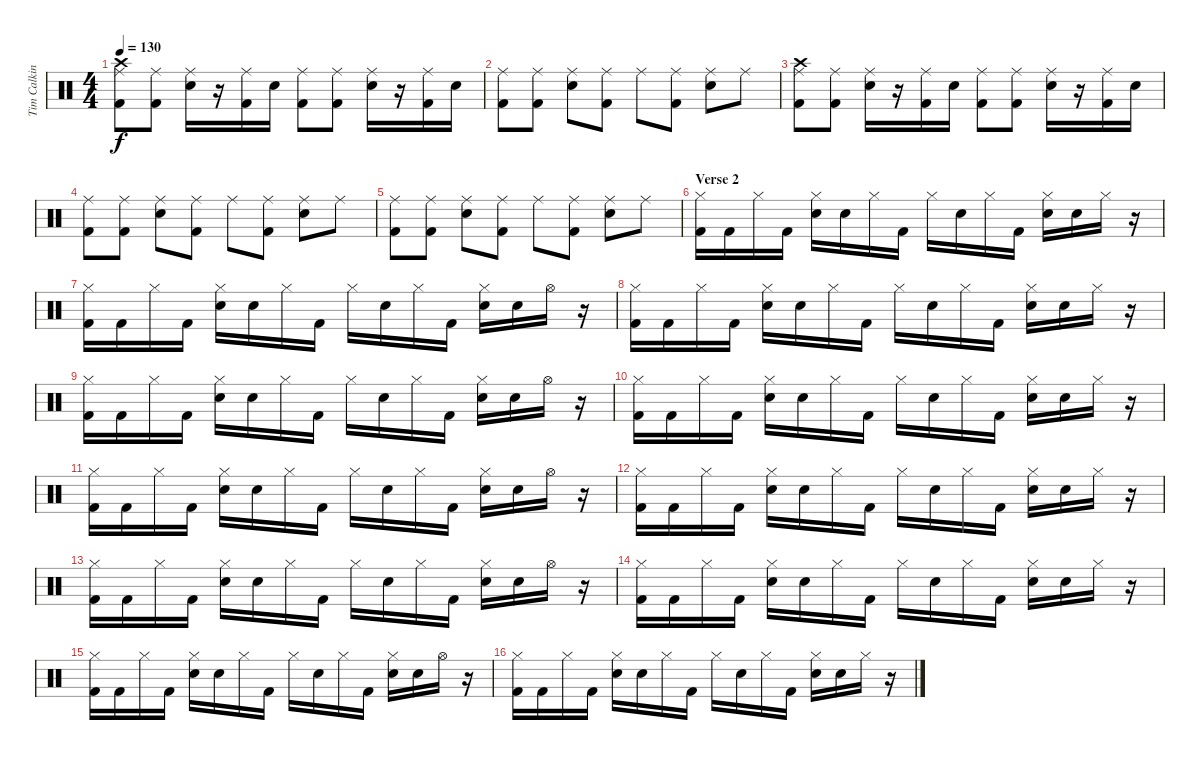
\track ("Tim Calkin" "Tim Calkin") {instrument percussion}
\staff {score}
\articulation defaults
\ts (4 4)
\tempo 130
\clef neutral
\ks c
("Ride (middle)" "Crash high (hit)" "Kick (hit) 2").8{dy f} ("Ride (middle)" "Kick (hit) 2").8 ("Ride (middle)" "Snare (hit) 2").16 r.16 ("Ride (middle)" "Kick (hit) 2").16 "Snare (hit) 2".16 ("Ride (middle)" "Kick (hit) 2").8 ("Ride (middle)" "Kick (hit) 2").8 ("Ride (middle)" "Snare (hit) 2").16 r.16 ("Ride (middle)" "Kick (hit) 2").16 "Snare (hit) 2".16 |
("Ride (middle)" "Kick (hit) 2").8 ("Ride (middle)" "Kick (hit) 2").8 ("Ride (middle)" "Snare (hit) 2").8 ("Ride (middle)" "Kick (hit) 2").8 "Ride (middle)".8 ("Ride (middle)" "Kick (hit) 2").8 ("Ride (middle)" "Snare (hit) 2").8 "Ride (middle)".8 |
("Ride (middle)" "Crash high (hit)" "Kick (hit) 2").8 ("Ride (middle)" "Kick (hit) 2").8 ("Ride (middle)" "Snare (hit) 2").16 r.16 ("Ride (middle)" "Kick (hit) 2").16 "Snare (hit) 2".16 ("Ride (middle)" "Kick (hit) 2").8 ("Ride (middle)" "Kick (hit) 2").8 ("Ride (middle)" "Snare (hit) 2").16 r.16 ("Ride (middle)" "Kick (hit) 2").16 "Snare (hit) 2".16 |
("Ride (middle)" "Kick (hit) 2").8 ("Ride (middle)" "Kick (hit) 2").8 ("Ride (middle)" "Snare (hit) 2").8 ("Ride (middle)" "Kick (hit) 2").8 "Ride (middle)".8 ("Ride (middle)" "Kick (hit) 2").8 ("Ride (middle)" "Snare (hit) 2").8 "Ride (middle)".8 |
("Ride (middle)" "Kick (hit) 2").8 ("Ride (middle)" "Kick (hit) 2").8 ("Ride (middle)" "Snare (hit) 2").8 ("Ride (middle)" "Kick (hit) 2").8 "Ride (middle)".8 ("Ride (middle)" "Kick (hit) 2").8 ("Ride (middle)" "Snare (hit) 2").8 "Ride (middle)".8 |
\section ("" "Verse 2")
("Hi-Hat (closed)" "Kick (hit) 2").16 "Kick (hit) 2".16 "Hi-Hat (closed)".16 "Kick (hit) 2".16 ("Hi-Hat (closed)" "Snare (hit) 2").16 "Snare (hit) 2".16 "Hi-Hat (closed)".16 "Kick (hit) 2".16 "Hi-Hat (closed)".16 "Snare (hit) 2".16 "Hi-Hat (closed)".16 "Kick (hit) 2".16 ("Hi-Hat (closed)" "Snare (hit) 2").16 "Snare (hit) 2".16 "Hi-Hat (closed)".16 r.16 |
("Hi-Hat (closed)" "Kick (hit) 2").16 "Kick (hit) 2".16 "Hi-Hat (closed)".16 "Kick (hit) 2".16 ("Hi-Hat (closed)" "Snare (hit) 2").16 "Snare (hit) 2".16 "Hi-Hat (closed)".16 "Kick (hit) 2".16 "Hi-Hat (closed)".16 "Snare (hit) 2".16 "Hi-Hat (closed)".16 "Kick (hit) 2".16 ("Hi-Hat (closed)" "Snare (hit) 2").16 "Snare (hit) 2".16 "Hi-Hat (open)".16 r.16 |
("Hi-Hat (closed)" "Kick (hit) 2").16 "Kick (hit) 2".16 "Hi-Hat (closed)".16 "Kick (hit) 2".16 ("Hi-Hat (closed)" "Snare (hit) 2").16 "Snare (hit) 2".16 "Hi-Hat (closed)".16 "Kick (hit) 2".16 "Hi-Hat (closed)".16 "Snare (hit) 2".16 "Hi-Hat (closed)".16 "Kick (hit) 2".16 ("Hi-Hat (closed)" "Snare (hit) 2").16 "Snare (hit) 2".16 "Hi-Hat (closed)".16 r.16 |
("Hi-Hat (closed)" "Kick (hit) 2").16 "Kick (hit) 2".16 "Hi-Hat (closed)".16 "Kick (hit) 2".16 ("Hi-Hat (closed)" "Snare (hit) 2").16 "Snare (hit) 2".16 "Hi-Hat (closed)".16 "Kick (hit) 2".16 "Hi-Hat (closed)".16 "Snare (hit) 2".16 "Hi-Hat (closed)".16 "Kick (hit) 2".16 ("Hi-Hat (closed)" "Snare (hit) 2").16 "Snare (hit) 2".16 "Hi-Hat (open)".16 r.16 |
("Hi-Hat (closed)" "Kick (hit) 2").16 "Kick (hit) 2".16 "Hi-Hat (closed)".16 "Kick (hit) 2".16 ("Hi-Hat (closed)" "Snare (hit) 2").16 "Snare (hit) 2".16 "Hi-Hat (closed)".16 "Kick (hit) 2".16 "Hi-Hat (closed)".16 "Snare (hit) 2".16 "Hi-Hat (closed)".16 "Kick (hit) 2".16 ("Hi-Hat (closed)" "Snare (hit) 2").16 "Snare (hit) 2".16 "Hi-Hat (closed)".16 r.16 |
("Hi-Hat (closed)" "Kick (hit) 2").16 "Kick (hit) 2".16 "Hi-Hat (closed)".16 "Kick (hit) 2".16 ("Hi-Hat (closed)" "Snare (hit) 2").16 "Snare (hit) 2".16 "Hi-Hat (closed)".16 "Kick (hit) 2".16 "Hi-Hat (closed)".16 "Snare (hit) 2".16 "Hi-Hat (closed)".16 "Kick (hit) 2".16 ("Hi-Hat (closed)" "Snare (hit) 2").16 "Snare (hit) 2".16 "Hi-Hat (open)".16 r.16 |
("Hi-Hat (closed)" "Kick (hit) 2").16 "Kick (hit) 2".16 "Hi-Hat (closed)".16 "Kick (hit) 2".16 ("Hi-Hat (closed)" "Snare (hit) 2").16 "Snare (hit) 2".16 "Hi-Hat (closed)".16 "Kick (hit) 2".16 "Hi-Hat (closed)".16 "Snare (hit) 2".16 "Hi-Hat (closed)".16 "Kick (hit) 2".16 ("Hi-Hat (closed)" "Snare (hit) 2").16 "Snare (hit) 2".16 "Hi-Hat (closed)".16 r.16 |
("Hi-Hat (closed)" "Kick (hit) 2").16 "Kick (hit) 2".16 "Hi-Hat (closed)".16 "Kick (hit) 2".16 ("Hi-Hat (closed)" "Snare (hit) 2").16 "Snare (hit) 2".16 "Hi-Hat (closed)".16 "Kick (hit) 2".16 "Hi-Hat (closed)".16 "Snare (hit) 2".16 "Hi-Hat (closed)".16 "Kick (hit) 2".16 ("Hi-Hat (closed)" "Snare (hit) 2").16 "Snare (hit) 2".16 "Hi-Hat (open)".16 r.16 |
("Hi-Hat (closed)" "Kick (hit) 2").16 "Kick (hit) 2".16 "Hi-Hat (closed)".16 "Kick (hit) 2".16 ("Hi-Hat (closed)" "Snare (hit) 2").16 "Snare (hit) 2".16 "Hi-Hat (closed)".16 "Kick (hit) 2".16 "Hi-Hat (closed)".16 "Snare (hit) 2".16 "Hi-Hat (closed)".16 "Kick (hit) 2".16 ("Hi-Hat (closed)" "Snare (hit) 2").16 "Snare (hit) 2".16 "Hi-Hat (closed)".16 r.16 |
("Hi-Hat (closed)" "Kick (hit) 2").16 "Kick (hit) 2".16 "Hi-Hat (closed)".16 "Kick (hit) 2".16 ("Hi-Hat (closed)" "Snare (hit) 2").16 "Snare (hit) 2".16 "Hi-Hat (closed)".16 "Kick (hit) 2".16 "Hi-Hat (closed)".16 "Snare (hit) 2".16 "Hi-Hat (closed)".16 "Kick (hit) 2".16 ("Hi-Hat (closed)" "Snare (hit) 2").16 "Snare (hit) 2".16 "Hi-Hat (open)".16 r.16 |
("Hi-Hat (closed)" "Kick (hit) 2").16 "Kick (hit) 2".16 "Hi-Hat (closed)".16 "Kick (hit) 2".16 ("Hi-Hat (closed)" "Snare (hit) 2").16 "Snare (hit) 2".16 "Hi-Hat (closed)".16 "Kick (hit) 2".16 "Hi-Hat (closed)".16 "Snare (hit) 2".16 "Hi-Hat (closed)".16 "Kick (hit) 2".16 ("Hi-Hat (closed)" "Snare (hit) 2").16 "Snare (hit) 2".16 "Hi-Hat (closed)".16 r.16
